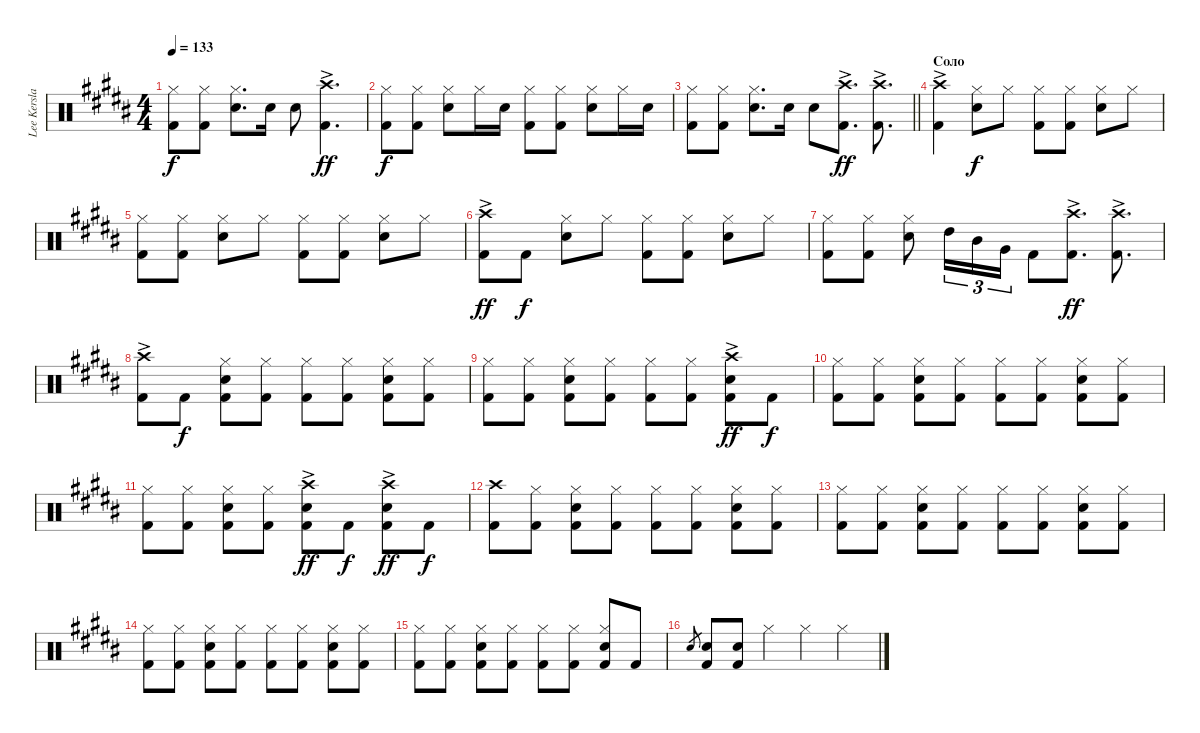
\track ("Lee Kerslake" "Lee Kersla") {instrument percussion}
\staff {score}
\articulation defaults
\ts (4 4)
\tempo 133
\clef neutral
\ks b
("Kick (hit) 2" "Hi-Hat (closed)").8{dy f} ("Kick (hit) 2" "Hi-Hat (closed)").8 ("Snare (hit) 2" "Hi-Hat (closed)").8{d} "Snare (hit) 2".16 "Snare (hit) 2".8 ("Kick (hit) 2" "Crash high (hit)"{ac}).4{d dy ff} |
("Kick (hit) 2" "Hi-Hat (closed)").8{dy f} ("Kick (hit) 2" "Hi-Hat (closed)").8 ("Snare (hit) 2" "Hi-Hat (closed)").8 "Hi-Hat (closed)".16 "Snare (hit) 2".16 ("Kick (hit) 2" "Hi-Hat (closed)").8 ("Kick (hit) 2" "Hi-Hat (closed)").8 ("Snare (hit) 2" "Hi-Hat (closed)").8 "Hi-Hat (closed)".16 "Snare (hit) 2".16 |
\barLineRight lightlight
("Kick (hit) 2" "Hi-Hat (closed)").8 ("Kick (hit) 2" "Hi-Hat (closed)").8 ("Snare (hit) 2" "Hi-Hat (closed)").8{d} "Snare (hit) 2".16 "Snare (hit) 2".8 ("Kick (hit) 2" "Crash high (hit)"{ac}).8{d dy ff} ("Kick (hit) 2" "Crash high (hit)"{ac}).8{d} |
\section ("" "Соло")
("Kick (hit) 2" "Crash high (hit)"{ac}).4 ("Snare (hit) 2" "Hi-Hat (closed)").8{dy f} "Hi-Hat (closed)".8 ("Kick (hit) 2" "Hi-Hat (closed)").8 ("Kick (hit) 2" "Hi-Hat (closed)").8 ("Snare (hit) 2" "Hi-Hat (closed)").8 "Hi-Hat (closed)".8 |
("Kick (hit) 2" "Hi-Hat (closed)").8 ("Kick (hit) 2" "Hi-Hat (closed)").8 ("Snare (hit) 2" "Hi-Hat (closed)").8 "Hi-Hat (closed)".8 ("Kick (hit) 2" "Hi-Hat (closed)").8 ("Kick (hit) 2" "Hi-Hat (closed)").8 ("Snare (hit) 2" "Hi-Hat (closed)").8 "Hi-Hat (closed)".8 |
("Kick (hit) 2" "Crash high (hit)"{ac}).8{dy ff} "Kick (hit) 2".8{dy f} ("Snare (hit) 2" "Hi-Hat (closed)").8 "Hi-Hat (closed)".8 ("Kick (hit) 2" "Hi-Hat (closed)").8 ("Kick (hit) 2" "Hi-Hat (closed)").8 ("Snare (hit) 2" "Hi-Hat (closed)").8 "Hi-Hat (closed)".8 |
("Kick (hit) 2" "Hi-Hat (closed)").8 ("Kick (hit) 2" "Hi-Hat (closed)").8 ("Snare (hit) 2" "Hi-Hat (closed)").8 "High Tom (hit)".16{tu (3 2)} "Mid Tom (hit)".16{tu (3 2)} "Very Low Tom (hit)".16{tu (3 2)} "Kick (hit) 2".8 ("Kick (hit) 2" "Crash high (hit)"{ac}).8{d dy ff} ("Kick (hit) 2" "Crash high (hit)"{ac}).8{d} |
("Kick (hit) 2" "Crash high (hit)"{ac}).8 "Kick (hit) 2".8{dy f} ("Snare (hit) 2" "Hi-Hat (closed)" "Kick (hit) 2").8 ("Hi-Hat (closed)" "Kick (hit) 2").8 ("Kick (hit) 2" "Hi-Hat (closed)").8 ("Kick (hit) 2" "Hi-Hat (closed)").8 ("Snare (hit) 2" "Hi-Hat (closed)" "Kick (hit) 2").8 ("Hi-Hat (closed)" "Kick (hit) 2").8 |
("Kick (hit) 2" "Hi-Hat (closed)").8 ("Kick (hit) 2" "Hi-Hat (closed)").8 ("Snare (hit) 2" "Hi-Hat (closed)" "Kick (hit) 2").8 ("Hi-Hat (closed)" "Kick (hit) 2").8 ("Kick (hit) 2" "Hi-Hat (closed)").8 ("Kick (hit) 2" "Hi-Hat (closed)").8 ("Kick (hit) 2" "Crash high (hit)"{ac} "Snare (hit) 2").8{dy ff} "Kick (hit) 2".8{dy f} |
("Kick (hit) 2" "Hi-Hat (closed)").8 ("Kick (hit) 2" "Hi-Hat (closed)").8 ("Snare (hit) 2" "Hi-Hat (closed)" "Kick (hit) 2").8 ("Hi-Hat (closed)" "Kick (hit) 2").8 ("Kick (hit) 2" "Hi-Hat (closed)").8 ("Kick (hit) 2" "Hi-Hat (closed)").8 ("Snare (hit) 2" "Hi-Hat (closed)" "Kick (hit) 2").8 ("Hi-Hat (closed)" "Kick (hit) 2").8 |
("Kick (hit) 2" "Hi-Hat (closed)").8 ("Kick (hit) 2" "Hi-Hat (closed)").8 ("Snare (hit) 2" "Hi-Hat (closed)" "Kick (hit) 2").8 ("Hi-Hat (closed)" "Kick (hit) 2").8 ("Kick (hit) 2" "Crash high (hit)"{ac} "Snare (hit) 2").8{dy ff} "Kick (hit) 2".8{dy f} ("Kick (hit) 2" "Crash high (hit)"{ac} "Snare (hit) 2").8{dy ff} "Kick (hit) 2".8{dy f} |
("Kick (hit) 2" "Crash high (hit)").8 ("Kick (hit) 2" "Hi-Hat (closed)").8 ("Snare (hit) 2" "Hi-Hat (closed)" "Kick (hit) 2").8 ("Hi-Hat (closed)" "Kick (hit) 2").8 ("Kick (hit) 2" "Hi-Hat (closed)").8 ("Kick (hit) 2" "Hi-Hat (closed)").8 ("Snare (hit) 2" "Hi-Hat (closed)" "Kick (hit) 2").8 ("Hi-Hat (closed)" "Kick (hit) 2").8 |
("Kick (hit) 2" "Hi-Hat (closed)").8 ("Kick (hit) 2" "Hi-Hat (closed)").8 ("Snare (hit) 2" "Hi-Hat (closed)" "Kick (hit) 2").8 ("Hi-Hat (closed)" "Kick (hit) 2").8 ("Kick (hit) 2" "Hi-Hat (closed)").8 ("Kick (hit) 2" "Hi-Hat (closed)").8 ("Snare (hit) 2" "Hi-Hat (closed)" "Kick (hit) 2").8 ("Hi-Hat (closed)" "Kick (hit) 2").8 |
("Kick (hit) 2" "Hi-Hat (closed)").8 ("Kick (hit) 2" "Hi-Hat (closed)").8 ("Snare (hit) 2" "Hi-Hat (closed)" "Kick (hit) 2").8 ("Hi-Hat (closed)" "Kick (hit) 2").8 ("Kick (hit) 2" "Hi-Hat (closed)").8 ("Kick (hit) 2" "Hi-Hat (closed)").8 ("Snare (hit) 2" "Hi-Hat (closed)" "Kick (hit) 2").8 ("Hi-Hat (closed)" "Kick (hit) 2").8 |
("Kick (hit) 2" "Hi-Hat (closed)").8 ("Kick (hit) 2" "Hi-Hat (closed)").8 ("Snare (hit) 2" "Hi-Hat (closed)" "Kick (hit) 2").8 ("Hi-Hat (closed)" "Kick (hit) 2").8 ("Kick (hit) 2" "Hi-Hat (closed)").8 ("Kick (hit) 2" "Hi-Hat (closed)").8 ("Snare (hit) 2" "Hi-Hat (closed)" "Kick (hit) 2").8 "Kick (hit) 2".8 |
"Snare (hit) 2".8{gr} ("Kick (hit) 2" "Snare (hit) 2").8 ("Kick (hit) 2" "Snare (hit) 2").8 "Hi-Hat (closed)".4 "Hi-Hat (closed)".4 "Hi-Hat (closed)".4
